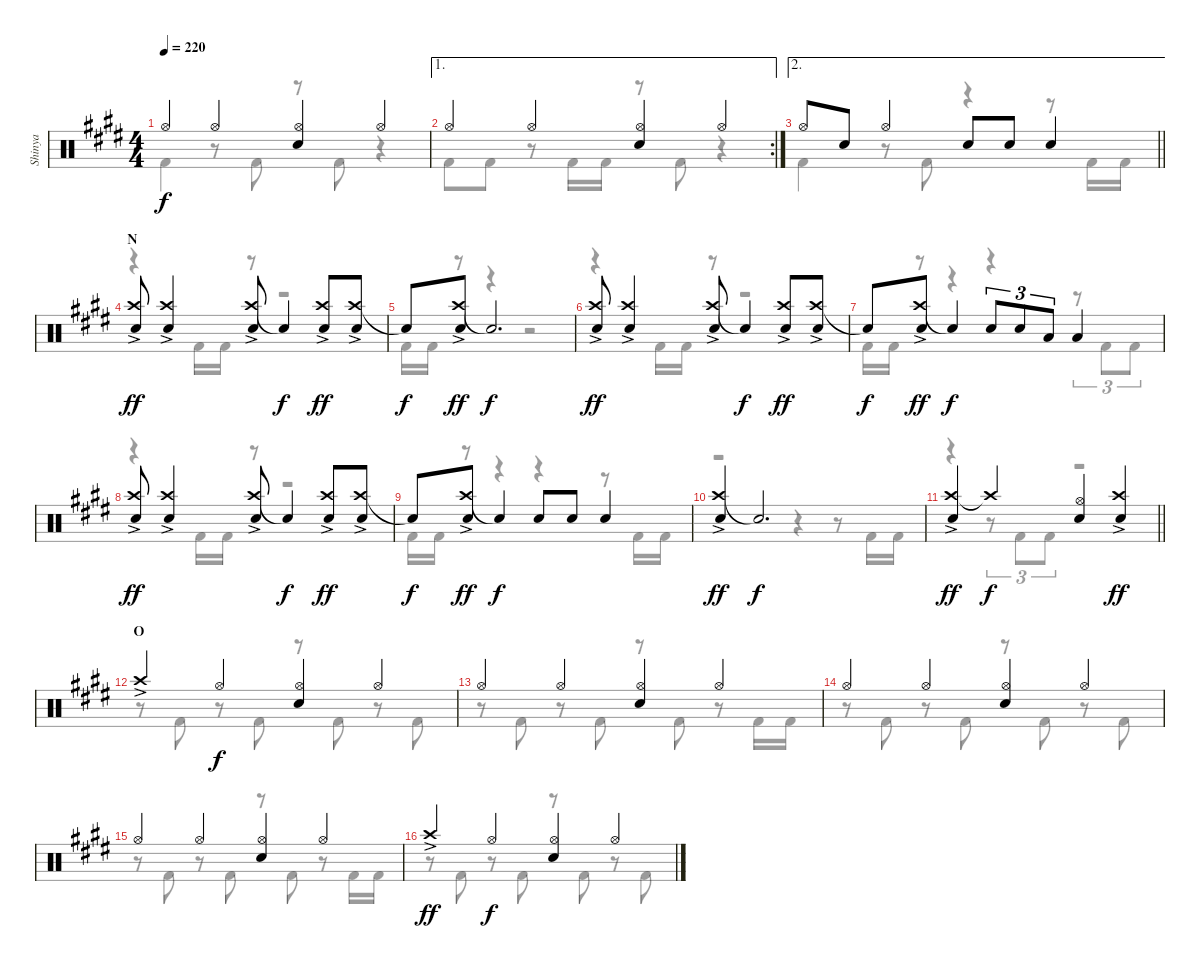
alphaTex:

\track ("Shinya" "Shinya") {instrument percussion}
\staff {score}
\articulation defaults
\voice
\ts (4 4)
\tempo 220
\clef neutral
\ks c#minor "Hi-Hat (open)".4{dy f} "Hi-Hat (open)".4
("Hi-Hat (open)" "Snare (hit) 2").4 "Hi-Hat (open)".4 |
\ae 1
\rc 2 "Hi-Hat (open)".4 "Hi-Hat (open)".4
("Hi-Hat (open)" "Snare (hit) 2").4 "Hi-Hat (open)".4 |
\ae 2
\barLineRight lightlight "Hi-Hat (open)".8 "Snare (hit) 2".8 "Hi-Hat (open)".4 "Snare (hit) 2".8 "Snare (hit) 2".8 "Snare (hit) 2".4
|
\section ("" "N")
("Crash high (hit)"{ac} "Snare (hit) 2").8{dy ff} ("Crash high (hit)"{ac} "Snare (hit) 2").4 ("Crash high (hit)"{ac} "Snare (hit) 2").8 "Snare (hit)"{t}.4{dy f} ("Crash high (hit)"{ac} "Snare (hit) 2").8{dy ff} ("Crash high (hit)"{ac} "Snare (hit) 2").8 |
"Snare (hit)"{t}.8{dy f} ("Crash high (hit)"{ac} "Snare (hit) 2").8{dy ff} "Snare (hit)"{t}.2{d dy f} |
("Crash high (hit)"{ac} "Snare (hit) 2").8{dy ff} ("Crash high (hit)"{ac} "Snare (hit) 2").4 ("Crash high (hit)"{ac} "Snare (hit) 2").8 "Snare (hit)"{t}.4{dy f} ("Crash high (hit)"{ac} "Snare (hit) 2").8{dy ff} ("Crash high (hit)"{ac} "Snare (hit) 2").8 |
"Snare (hit)"{t}.8{dy f} ("Crash high (hit)"{ac} "Snare (hit) 2").8{dy ff} "Snare (hit)"{t}.4{dy f} "Snare (hit) 2".8{tu (3 2)} "Snare (hit) 2".8{tu (3 2)} "Low Tom (hit)".8{tu (3 2)} "Low Tom (hit)".4 |
("Crash high (hit)"{ac} "Snare (hit) 2").8{dy ff} ("Crash high (hit)"{ac} "Snare (hit) 2").4 ("Crash high (hit)"{ac} "Snare (hit) 2").8 "Snare (hit)"{t}.4{dy f} ("Crash high (hit)"{ac} "Snare (hit) 2").8{dy ff} ("Crash high (hit)"{ac} "Snare (hit) 2").8 |
"Snare (hit)"{t}.8{dy f} ("Crash high (hit)"{ac} "Snare (hit) 2").8{dy ff} "Snare (hit)"{t}.4{dy f} "Snare (hit) 2".8 "Snare (hit) 2".8 "Snare (hit) 2".4 |
("Crash high (hit)"{ac} "Snare (hit) 2").4{dy ff} "Snare (hit)"{t}.2{d dy f} |
\barLineRight lightlight
("Crash high (hit)"{ac} "Snare (hit) 2").4{dy ff} "Crash high (hit)"{t}.4{dy f} ("Hi-Hat (open)" "Snare (hit) 2").4 ("Crash high (hit)"{ac} "Snare (hit) 2").4{dy ff} |
\section ("" "O")
"Crash high (hit)"{ac}.4 "Hi-Hat (open)".4{dy f} ("Hi-Hat (open)" "Snare (hit) 2").4 "Hi-Hat (open)".4 |
"Hi-Hat (open)".4 "Hi-Hat (open)".4 ("Hi-Hat (open)" "Snare (hit) 2").4 "Hi-Hat (open)".4 |
"Hi-Hat (open)".4 "Hi-Hat (open)".4 ("Hi-Hat (open)" "Snare (hit) 2").4 "Hi-Hat (open)".4 |
"Hi-Hat (open)".4 "Hi-Hat (open)".4 ("Hi-Hat (open)" "Snare (hit) 2").4 "Hi-Hat (open)".4 |
"Crash high (hit)"{ac}.4{dy ff} "Hi-Hat (open)".4{dy f} ("Hi-Hat (open)" "Snare (hit) 2").4 "Hi-Hat (open)".4
\voice
\clef neutral
\ottava regular
\simile none
\ks c#minor "Kick (hit) 2".4{dy f}
r.8 "Kick (hit) 2".8 r.8 "Kick (hit) 2".8 r.4 |
"Kick (hit) 2".8 "Kick (hit) 2".8 r.8 "Kick (hit) 2".16 "Kick (hit) 2".16 r.8 "Kick (hit) 2".8 r.4 |
\barLineRight lightlight "Kick (hit) 2".4
r.8 "Kick (hit) 2".8 r.4 r.8 "Kick (hit) 2".16 "Kick (hit) 2".16 |
r.4 "Kick (hit) 2".16 "Kick (hit) 2".16 r.8 r.2 |
"Kick (hit) 2".16 "Kick (hit) 2".16 r.8 r.4 r.2 |
r.4 "Kick (hit) 2".16 "Kick (hit) 2".16 r.8 r.2 |
"Kick (hit) 2".16 "Kick (hit) 2".16 r.8 r.4 r.4 r.8{tu (3 2)} "Kick (hit) 2".8{tu (3 2)} "Kick (hit) 2".8{tu (3 2)} |
r.4 "Kick (hit) 2".16 "Kick (hit) 2".16 r.8 r.2 |
"Kick (hit) 2".16 "Kick (hit) 2".16 r.8 r.4 r.4 r.8 "Kick (hit) 2".16 "Kick (hit) 2".16 |
r.2 r.4 r.8 "Kick (hit) 2".16 "Kick (hit) 2".16 |
\barLineRight lightlight
r.4 r.8{tu (3 2)} "Kick (hit) 2".8{tu (3 2)} "Kick (hit) 2".8{tu (3 2)} r.2 |
r.8 "Kick (hit) 2".8 r.8 "Kick (hit) 2".8 r.8 "Kick (hit) 2".8 r.8 "Kick (hit) 2".8 |
r.8 "Kick (hit) 2".8 r.8 "Kick (hit) 2".8 r.8 "Kick (hit) 2".8 r.8 "Kick (hit) 2".16 "Kick (hit) 2".16 |
r.8 "Kick (hit) 2".8 r.8 "Kick (hit) 2".8 r.8 "Kick (hit) 2".8 r.8 "Kick (hit) 2".8 |
r.8 "Kick (hit) 2".8 r.8 "Kick (hit) 2".8 r.8 "Kick (hit) 2".8 r.8 "Kick (hit) 2".16 "Kick (hit) 2".16 |
r.8 "Kick (hit) 2".8 r.8 "Kick (hit) 2".8 r.8 "Kick (hit) 2".8 r.8 "Kick (hit) 2".8
